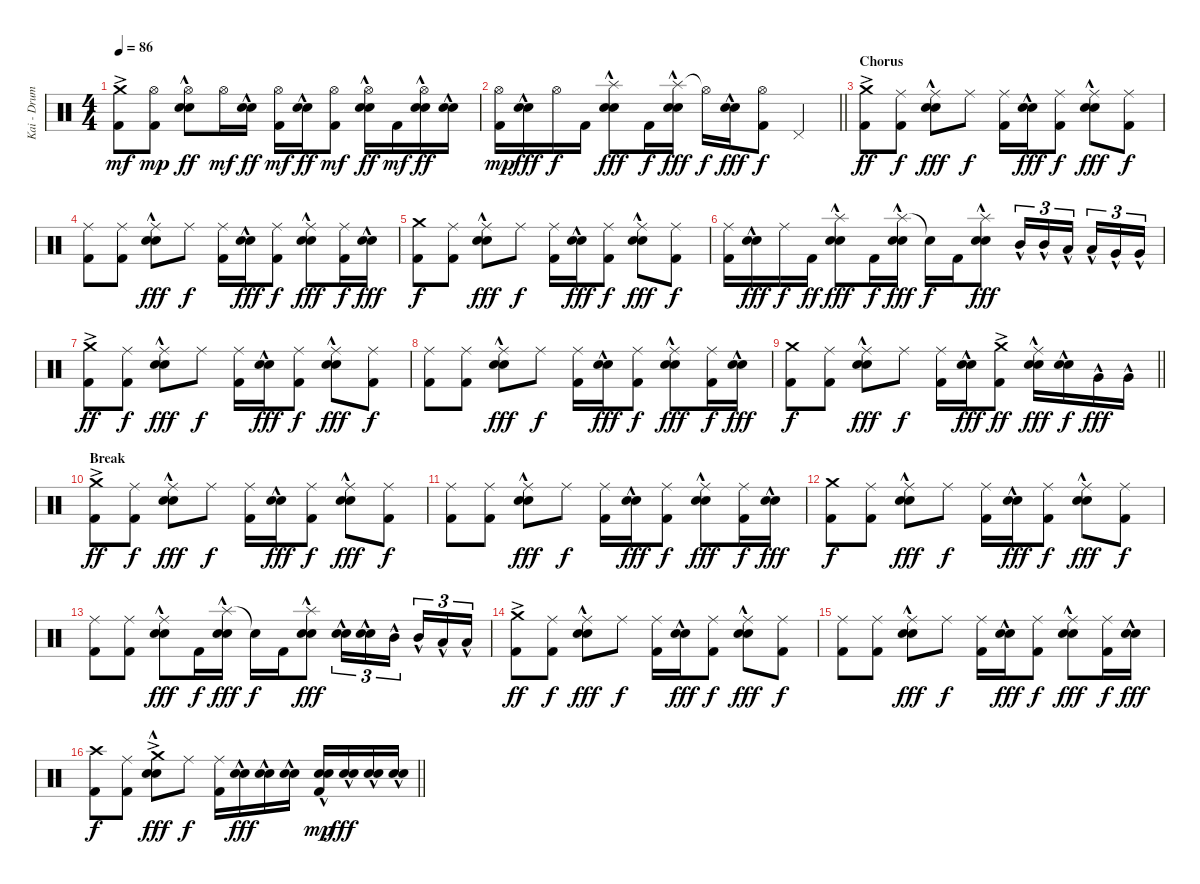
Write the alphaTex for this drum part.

\track ("Kai - Drums" "Kai - Drum") {instrument percussion}
\staff {score}
\articulation defaults
\ts (4 4)
\tempo 86
\clef neutral
\ks c
("Crash medium (hit)"{ac} "Kick (hit) 2").8{dy mf} ("Hi-Hat (open)" "Kick (hit) 2").8{dy mp} ("Hi-Hat (open)" "Electric Snare (hit)"{hac} "Snare (hit) 2"{hac}).8{dy ff} "Hi-Hat (open)".16{dy mf} ("Electric Snare (hit)"{hac} "Snare (hit) 2"{hac}).16{dy ff} ("Hi-Hat (open)" "Kick (hit) 2").16{dy mf} ("Electric Snare (hit)"{hac} "Snare (hit) 2"{hac}).16{dy ff} ("Hi-Hat (open)" "Kick (hit) 2").8{dy mf} ("Hi-Hat (open)" "Electric Snare (hit)"{hac} "Snare (hit) 2"{hac}).16{dy ff} "Kick (hit) 2".16{dy mf} ("Hi-Hat (open)" "Electric Snare (hit)"{hac} "Snare (hit) 2"{hac}).16{dy ff} ("Electric Snare (hit)"{hac} "Snare (hit) 2"{hac}).16 |
\barLineRight lightlight
("Hi-Hat (open)" "Kick (hit) 2").16{dy mp} ("Electric Snare (hit)"{hac} "Snare (hit) 2"{hac}).16{dy fff} "Hi-Hat (open)".16{dy f} "Kick (hit) 2".16 ("Splash (hit)"{hac} "Electric Snare (hit)"{hac} "Snare (hit) 2"{hac}).8{dy fff} "Kick (hit) 2".16{dy f} ("Splash (hit)"{hac} "Electric Snare (hit)"{hac} "Snare (hit) 2"{hac}).16{dy fff} "Hi-Hat (open)"{t}.16{dy f} ("Electric Snare (hit)"{hac} "Snare (hit) 2"{hac}).16{dy fff} ("Hi-Hat (open)" "Kick (hit) 2").8{dy f} "Pedal Hi-Hat (hit)".4 |
\section ("" "Chorus")
("Crash medium (hit)"{ac} "Kick (hit) 2").8{dy ff} ("Ride (middle)" "Kick (hit) 2").8{dy f} ("Ride (middle)" "Electric Snare (hit)"{hac} "Snare (hit) 2"{hac}).8{dy fff} "Ride (middle)".8{dy f} ("Ride (middle)" "Kick (hit) 2").16 ("Electric Snare (hit)"{hac} "Snare (hit) 2"{hac}).16{dy fff} ("Ride (middle)" "Kick (hit) 2").8{dy f} ("Ride (middle)" "Electric Snare (hit)"{hac} "Snare (hit) 2"{hac}).8{dy fff} ("Ride (middle)" "Kick (hit) 2").8{dy f} |
("Ride (middle)" "Kick (hit) 2").8 ("Ride (middle)" "Kick (hit) 2").8 ("Ride (middle)" "Electric Snare (hit)"{hac} "Snare (hit) 2"{hac}).8{dy fff} "Ride (middle)".8{dy f} ("Ride (middle)" "Kick (hit) 2").16 ("Electric Snare (hit)"{hac} "Snare (hit) 2"{hac}).16{dy fff} ("Ride (middle)" "Kick (hit) 2").8{dy f} ("Ride (middle)" "Electric Snare (hit)"{hac} "Snare (hit) 2"{hac}).8{dy fff} ("Ride (middle)" "Kick (hit) 2").16{dy f} ("Electric Snare (hit)"{hac} "Snare (hit) 2"{hac}).16{dy fff} |
("Crash medium (hit)" "Kick (hit) 2").8{dy f} ("Ride (middle)" "Kick (hit) 2").8 ("Ride (middle)" "Electric Snare (hit)"{hac} "Snare (hit) 2"{hac}).8{dy fff} "Ride (middle)".8{dy f} ("Ride (middle)" "Kick (hit) 2").16 ("Electric Snare (hit)"{hac} "Snare (hit) 2"{hac}).16{dy fff} ("Ride (middle)" "Kick (hit) 2").8{dy f} ("Ride (middle)" "Electric Snare (hit)"{hac} "Snare (hit) 2"{hac}).8{dy fff} ("Ride (middle)" "Kick (hit) 2").8{dy f} |
("Ride (middle)" "Kick (hit) 2").16 ("Electric Snare (hit)"{hac} "Snare (hit) 2"{hac}).16{dy fff} "Ride (middle)".16{dy f} "Kick (hit) 2".16{dy ff} ("Splash (hit)"{hac} "Electric Snare (hit)"{hac} "Snare (hit) 2"{hac}).8{dy fff} "Kick (hit) 2".16{dy f} ("Splash (hit)"{hac} "Electric Snare (hit)"{hac} "Snare (hit) 2"{hac}).16{dy fff} "Snare (hit)"{t}.16{dy f} "Kick (hit) 2".16 ("Splash (hit)"{hac} "Electric Snare (hit)"{hac} "Snare (hit) 2"{hac}).8{dy fff} "Mid Tom (hit)"{hac}.16{tu (3 2)} "Mid Tom (hit)"{hac}.16{tu (3 2)} "Low Tom (hit)"{hac}.16{tu (3 2) beam splitsecondary} "Low Tom (hit)"{hac}.16{tu (3 2)} "Very Low Tom (hit)"{hac}.16{tu (3 2)} "Very Low Tom (hit)"{hac}.16{tu (3 2)} |
("Crash medium (hit)"{ac} "Kick (hit) 2").8{dy ff} ("Ride (middle)" "Kick (hit) 2").8{dy f} ("Ride (middle)" "Electric Snare (hit)"{hac} "Snare (hit) 2"{hac}).8{dy fff} "Ride (middle)".8{dy f} ("Ride (middle)" "Kick (hit) 2").16 ("Electric Snare (hit)"{hac} "Snare (hit) 2"{hac}).16{dy fff} ("Ride (middle)" "Kick (hit) 2").8{dy f} ("Ride (middle)" "Electric Snare (hit)"{hac} "Snare (hit) 2"{hac}).8{dy fff} ("Ride (middle)" "Kick (hit) 2").8{dy f} |
("Ride (middle)" "Kick (hit) 2").8 ("Ride (middle)" "Kick (hit) 2").8 ("Ride (middle)" "Electric Snare (hit)"{hac} "Snare (hit) 2"{hac}).8{dy fff} "Ride (middle)".8{dy f} ("Ride (middle)" "Kick (hit) 2").16 ("Electric Snare (hit)"{hac} "Snare (hit) 2"{hac}).16{dy fff} ("Ride (middle)" "Kick (hit) 2").8{dy f} ("Ride (middle)" "Electric Snare (hit)"{hac} "Snare (hit) 2"{hac}).8{dy fff} ("Ride (middle)" "Kick (hit) 2").16{dy f} ("Electric Snare (hit)"{hac} "Snare (hit) 2"{hac}).16{dy fff} |
\barLineRight lightlight
("Crash medium (hit)" "Kick (hit) 2").8{dy f} ("Ride (middle)" "Kick (hit) 2").8 ("Ride (middle)" "Electric Snare (hit)"{hac} "Snare (hit) 2"{hac}).8{dy fff} "Ride (middle)".8{dy f} ("Ride (middle)" "Kick (hit) 2").16 ("Electric Snare (hit)"{hac} "Snare (hit) 2"{hac}).16{dy fff} ("Crash medium (hit)"{ac} "Kick (hit) 2").8{dy ff} ("Ride (middle)" "Electric Snare (hit)"{hac} "Snare (hit) 2"{hac}).16{dy fff} ("Electric Snare (hit)"{hac} "Snare (hit) 2"{hac}).16{dy f} "Very Low Tom (hit)"{hac}.16{dy fff} "Very Low Tom (hit)"{hac}.16 |
\section ("" "Break")
("Crash medium (hit)"{ac} "Kick (hit) 2").8{dy ff} ("Ride (middle)" "Kick (hit) 2").8{dy f} ("Ride (middle)" "Electric Snare (hit)"{hac} "Snare (hit) 2"{hac}).8{dy fff} "Ride (middle)".8{dy f} ("Ride (middle)" "Kick (hit) 2").16 ("Electric Snare (hit)"{hac} "Snare (hit) 2"{hac}).16{dy fff} ("Ride (middle)" "Kick (hit) 2").8{dy f} ("Ride (middle)" "Electric Snare (hit)"{hac} "Snare (hit) 2"{hac}).8{dy fff} ("Ride (middle)" "Kick (hit) 2").8{dy f} |
("Ride (middle)" "Kick (hit) 2").8 ("Ride (middle)" "Kick (hit) 2").8 ("Ride (middle)" "Electric Snare (hit)"{hac} "Snare (hit) 2"{hac}).8{dy fff} "Ride (middle)".8{dy f} ("Ride (middle)" "Kick (hit) 2").16 ("Electric Snare (hit)"{hac} "Snare (hit) 2"{hac}).16{dy fff} ("Ride (middle)" "Kick (hit) 2").8{dy f} ("Ride (middle)" "Electric Snare (hit)"{hac} "Snare (hit) 2"{hac}).8{dy fff} ("Ride (middle)" "Kick (hit) 2").16{dy f} ("Electric Snare (hit)"{hac} "Snare (hit) 2"{hac}).16{dy fff} |
("Crash medium (hit)" "Kick (hit) 2").8{dy f} ("Ride (middle)" "Kick (hit) 2").8 ("Ride (middle)" "Electric Snare (hit)"{hac} "Snare (hit) 2"{hac}).8{dy fff} "Ride (middle)".8{dy f} ("Ride (middle)" "Kick (hit) 2").16 ("Electric Snare (hit)"{hac} "Snare (hit) 2"{hac}).16{dy fff} ("Ride (middle)" "Kick (hit) 2").8{dy f} ("Ride (middle)" "Electric Snare (hit)"{hac} "Snare (hit) 2"{hac}).8{dy fff} ("Ride (middle)" "Kick (hit) 2").8{dy f} |
("Ride (middle)" "Kick (hit) 2").8 ("Ride (middle)" "Kick (hit) 2").8 ("Ride (middle)" "Electric Snare (hit)"{hac} "Snare (hit) 2"{hac}).8{dy fff} "Kick (hit) 2".16{dy f} ("Splash (hit)"{hac} "Electric Snare (hit)"{hac} "Snare (hit) 2"{hac}).16{dy fff} "Snare (hit)"{t}.16{dy f} "Kick (hit) 2".16 ("Splash (hit)"{hac} "Electric Snare (hit)"{hac} "Snare (hit) 2"{hac}).8{dy fff} ("Electric Snare (hit)"{hac} "Snare (hit) 2").16{tu (3 2)} ("Electric Snare (hit)"{hac} "Snare (hit) 2").16{tu (3 2)} "Mid Tom (hit)"{hac}.16{tu (3 2) beam splitsecondary} "Mid Tom (hit)"{hac}.16{tu (3 2)} "Low Tom (hit)"{hac}.16{tu (3 2)} "Low Tom (hit)"{hac}.16{tu (3 2)} |
("Crash medium (hit)"{ac} "Kick (hit) 2").8{dy ff} ("Ride (middle)" "Kick (hit) 2").8{dy f} ("Ride (middle)" "Electric Snare (hit)"{hac} "Snare (hit) 2"{hac}).8{dy fff} "Ride (middle)".8{dy f} ("Ride (middle)" "Kick (hit) 2").16 ("Electric Snare (hit)"{hac} "Snare (hit) 2"{hac}).16{dy fff} ("Ride (middle)" "Kick (hit) 2").8{dy f} ("Ride (middle)" "Electric Snare (hit)"{hac} "Snare (hit) 2"{hac}).8{dy fff} ("Ride (middle)" "Kick (hit) 2").8{dy f} |
("Ride (middle)" "Kick (hit) 2").8 ("Ride (middle)" "Kick (hit) 2").8 ("Ride (middle)" "Electric Snare (hit)"{hac} "Snare (hit) 2"{hac}).8{dy fff} "Ride (middle)".8{dy f} ("Ride (middle)" "Kick (hit) 2").16 ("Electric Snare (hit)"{hac} "Snare (hit) 2"{hac}).16{dy fff} ("Ride (middle)" "Kick (hit) 2").8{dy f} ("Ride (middle)" "Electric Snare (hit)"{hac} "Snare (hit) 2"{hac}).8{dy fff} ("Ride (middle)" "Kick (hit) 2").16{dy f} ("Electric Snare (hit)"{hac} "Snare (hit) 2"{hac}).16{dy fff} |
\barLineRight lightlight
("Crash high (hit)" "Kick (hit) 2").8{dy f} ("Ride (middle)" "Kick (hit) 2").8 ("Crash medium (hit)"{ac} "Electric Snare (hit)"{hac} "Snare (hit) 2"{hac}).8{dy fff} "Ride (middle)".8{dy f} ("Ride (middle)" "Kick (hit) 2").16 ("Electric Snare (hit)"{hac} "Snare (hit) 2"{hac}).16{dy fff} ("Electric Snare (hit)"{hac} "Snare (hit) 2"{hac}).16 ("Electric Snare (hit)"{hac} "Snare (hit) 2"{hac}).16 ("Electric Snare (hit)"{hac} "Snare (hit) 2"{hac} "Kick (hit) 2").16{dy mp} ("Electric Snare (hit)"{hac} "Snare (hit) 2"{hac}).16{dy fff} ("Electric Snare (hit)"{hac} "Snare (hit) 2"{hac}).16 ("Electric Snare (hit)"{hac} "Snare (hit) 2"{hac}).16
